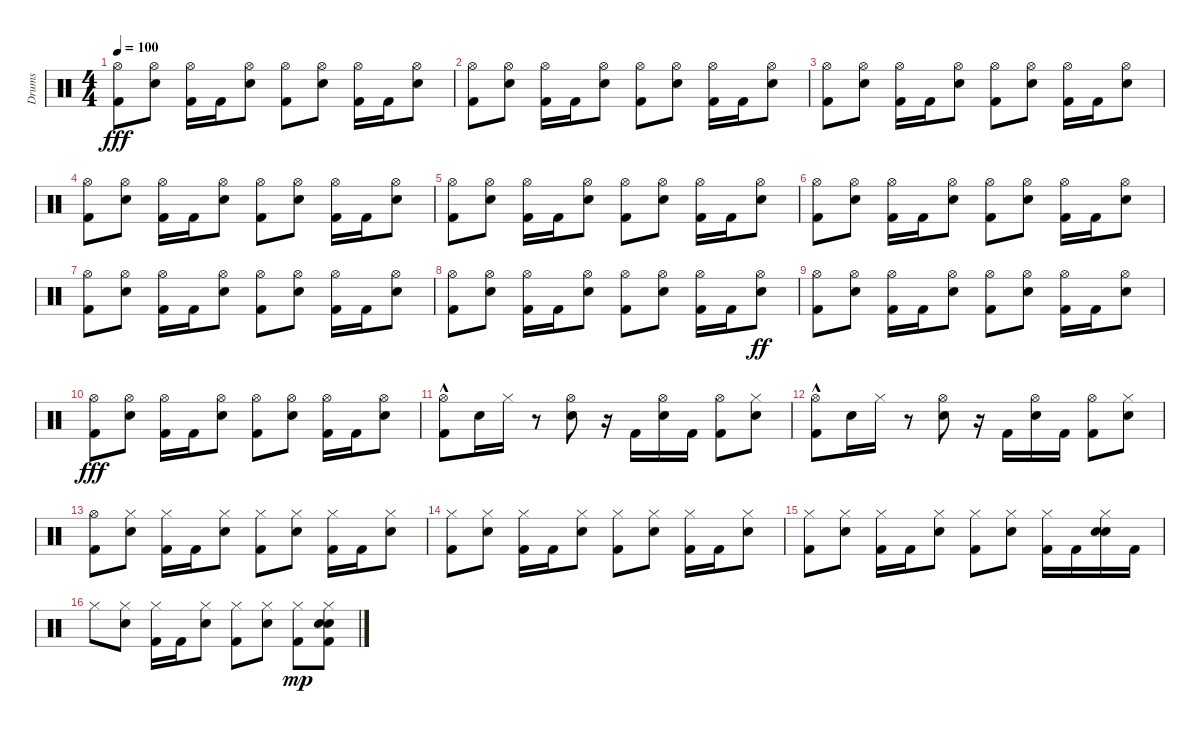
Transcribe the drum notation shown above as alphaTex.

\track ("Drums" "Drums") {instrument percussion}
\staff {score}
\articulation defaults
\ts (4 4)
\tempo 100
\clef neutral
\ks c
("Kick (hit) 2" "Hi-Hat (open)").8{dy fff} ("Hi-Hat (open)" "Electric Snare (hit)").8 ("Hi-Hat (open)" "Kick (hit) 2").16 "Kick (hit) 2".16 ("Hi-Hat (open)" "Electric Snare (hit)").8 ("Kick (hit) 2" "Hi-Hat (open)").8 ("Hi-Hat (open)" "Electric Snare (hit)").8 ("Kick (hit) 2" "Hi-Hat (open)").16 "Kick (hit) 2".16 ("Hi-Hat (open)" "Electric Snare (hit)").8 |
("Kick (hit) 2" "Hi-Hat (open)").8 ("Hi-Hat (open)" "Electric Snare (hit)").8 ("Hi-Hat (open)" "Kick (hit) 2").16 "Kick (hit) 2".16 ("Hi-Hat (open)" "Electric Snare (hit)").8 ("Kick (hit) 2" "Hi-Hat (open)").8 ("Hi-Hat (open)" "Electric Snare (hit)").8 ("Hi-Hat (open)" "Kick (hit) 2").16 "Kick (hit) 2".16 ("Hi-Hat (open)" "Electric Snare (hit)").8 |
("Kick (hit) 2" "Hi-Hat (open)").8 ("Hi-Hat (open)" "Electric Snare (hit)").8 ("Kick (hit) 2" "Hi-Hat (open)").16 "Kick (hit) 2".16 ("Hi-Hat (open)" "Electric Snare (hit)").8 ("Kick (hit) 2" "Hi-Hat (open)").8 ("Hi-Hat (open)" "Electric Snare (hit)").8 ("Hi-Hat (open)" "Kick (hit) 2").16 "Kick (hit) 2".16 ("Hi-Hat (open)" "Electric Snare (hit)").8 |
("Kick (hit) 2" "Hi-Hat (open)").8 ("Hi-Hat (open)" "Electric Snare (hit)").8 ("Kick (hit) 2" "Hi-Hat (open)").16 "Kick (hit) 2".16 ("Hi-Hat (open)" "Electric Snare (hit)").8 ("Kick (hit) 2" "Hi-Hat (open)").8 ("Hi-Hat (open)" "Electric Snare (hit)").8 ("Hi-Hat (open)" "Kick (hit) 2").16 "Kick (hit) 2".16 ("Hi-Hat (open)" "Electric Snare (hit)").8 |
("Kick (hit) 2" "Hi-Hat (open)").8 ("Hi-Hat (open)" "Electric Snare (hit)").8 ("Hi-Hat (open)" "Kick (hit) 2").16 "Kick (hit) 2".16 ("Hi-Hat (open)" "Electric Snare (hit)").8 ("Kick (hit) 2" "Hi-Hat (open)").8 ("Hi-Hat (open)" "Electric Snare (hit)").8 ("Kick (hit) 2" "Hi-Hat (open)").16 "Kick (hit) 2".16 ("Hi-Hat (open)" "Electric Snare (hit)").8 |
("Kick (hit) 2" "Hi-Hat (open)").8 ("Hi-Hat (open)" "Electric Snare (hit)").8 ("Hi-Hat (open)" "Kick (hit) 2").16 "Kick (hit) 2".16 ("Hi-Hat (open)" "Electric Snare (hit)").8 ("Kick (hit) 2" "Hi-Hat (open)").8 ("Hi-Hat (open)" "Electric Snare (hit)").8 ("Kick (hit) 2" "Hi-Hat (open)").16 "Kick (hit) 2".16 ("Hi-Hat (open)" "Electric Snare (hit)").8 |
("Kick (hit) 2" "Hi-Hat (open)").8 ("Hi-Hat (open)" "Electric Snare (hit)").8 ("Hi-Hat (open)" "Kick (hit) 2").16 "Kick (hit) 2".16 ("Hi-Hat (open)" "Electric Snare (hit)").8 ("Kick (hit) 2" "Hi-Hat (open)").8 ("Hi-Hat (open)" "Electric Snare (hit)").8 ("Hi-Hat (open)" "Kick (hit) 2").16 "Kick (hit) 2".16 ("Hi-Hat (open)" "Electric Snare (hit)").8 |
("Kick (hit) 2" "Hi-Hat (open)").8 ("Hi-Hat (open)" "Electric Snare (hit)").8 ("Kick (hit) 2" "Hi-Hat (open)").16 "Kick (hit) 2".16 ("Hi-Hat (open)" "Electric Snare (hit)").8 ("Kick (hit) 2" "Hi-Hat (open)").8 ("Hi-Hat (open)" "Electric Snare (hit)").8 ("Hi-Hat (open)" "Kick (hit) 2").16 "Kick (hit) 2".16 ("Hi-Hat (open)" "Electric Snare (hit)").8{dy ff} |
("Kick (hit) 2" "Hi-Hat (open)").8 ("Hi-Hat (open)" "Electric Snare (hit)").8 ("Hi-Hat (open)" "Kick (hit) 2").16 "Kick (hit) 2".16 ("Hi-Hat (open)" "Electric Snare (hit)").8 ("Kick (hit) 2" "Hi-Hat (open)").8 ("Hi-Hat (open)" "Electric Snare (hit)").8 ("Kick (hit) 2" "Hi-Hat (open)").16 "Kick (hit) 2".16 ("Hi-Hat (open)" "Electric Snare (hit)").8 |
("Kick (hit) 2" "Hi-Hat (open)").8{dy fff} ("Hi-Hat (open)" "Electric Snare (hit)").8 ("Hi-Hat (open)" "Kick (hit) 2").16 "Kick (hit) 2".16 ("Hi-Hat (open)" "Electric Snare (hit)").8 ("Kick (hit) 2" "Hi-Hat (open)").8 ("Hi-Hat (open)" "Electric Snare (hit)").8 ("Kick (hit) 2" "Hi-Hat (open)").16 "Kick (hit) 2".16 ("Hi-Hat (open)" "Electric Snare (hit)").8 |
("Hi-Hat (open)" "Kick (hit) 2"{hac}).8 "Electric Snare (hit)".16 "Hi-Hat (closed)".16 r.8 ("Hi-Hat (open)" "Electric Snare (hit)").8 r.16 "Kick (hit) 2".16 ("Hi-Hat (open)" "Electric Snare (hit)").16 "Kick (hit) 2".16 ("Kick (hit) 2" "Hi-Hat (open)").8 ("Hi-Hat (closed)" "Electric Snare (hit)").8 |
("Hi-Hat (open)" "Kick (hit) 2"{hac}).8 "Electric Snare (hit)".16 "Hi-Hat (closed)".16 r.8 ("Hi-Hat (open)" "Electric Snare (hit)").8 r.16 "Kick (hit) 2".16 ("Hi-Hat (open)" "Electric Snare (hit)").16 "Kick (hit) 2".16 ("Kick (hit) 2" "Hi-Hat (open)").8 ("Hi-Hat (closed)" "Electric Snare (hit)").8 |
("Kick (hit) 2" "Hi-Hat (open)").8 ("Hi-Hat (closed)" "Electric Snare (hit)").8 ("Hi-Hat (closed)" "Kick (hit) 2").16 "Kick (hit) 2".16 ("Hi-Hat (closed)" "Electric Snare (hit)").8 ("Kick (hit) 2" "Hi-Hat (closed)").8 ("Hi-Hat (closed)" "Electric Snare (hit)").8 ("Kick (hit) 2" "Hi-Hat (closed)").16 "Kick (hit) 2".16 ("Hi-Hat (closed)" "Electric Snare (hit)").8 |
("Kick (hit) 2" "Hi-Hat (closed)").8 ("Hi-Hat (closed)" "Electric Snare (hit)").8 ("Hi-Hat (closed)" "Kick (hit) 2").16 "Kick (hit) 2".16 ("Hi-Hat (closed)" "Electric Snare (hit)").8 ("Kick (hit) 2" "Hi-Hat (closed)").8 ("Hi-Hat (closed)" "Electric Snare (hit)").8 ("Kick (hit) 2" "Hi-Hat (closed)").16 "Kick (hit) 2".16 ("Hi-Hat (closed)" "Electric Snare (hit)").8 |
("Kick (hit) 2" "Hi-Hat (closed)").8 ("Hi-Hat (closed)" "Electric Snare (hit)").8 ("Hi-Hat (closed)" "Kick (hit) 2").16 "Kick (hit) 2".16 ("Hi-Hat (closed)" "Electric Snare (hit)").8 ("Kick (hit) 2" "Hi-Hat (closed)").8 ("Hi-Hat (closed)" "Electric Snare (hit)").8 ("Kick (hit) 2" "Hi-Hat (closed)").16 "Kick (hit) 2".16 ("Hi-Hat (closed)" "Electric Snare (hit)" "Snare (hit) 2").16 "Kick (hit) 2".16 |
"Hi-Hat (closed)".8 ("Hi-Hat (closed)" "Electric Snare (hit)").8 ("Hi-Hat (closed)" "Kick (hit) 2").16 "Kick (hit) 2".16 ("Hi-Hat (closed)" "Electric Snare (hit)").8 ("Kick (hit) 2" "Hi-Hat (closed)").8 ("Hi-Hat (closed)" "Electric Snare (hit)").8 ("Hi-Hat (closed)" "Kick (hit) 2").8{dy mp} ("Hi-Hat (closed)" "Electric Snare (hit)" "Snare (hit) 2" "Kick (hit) 2").8
